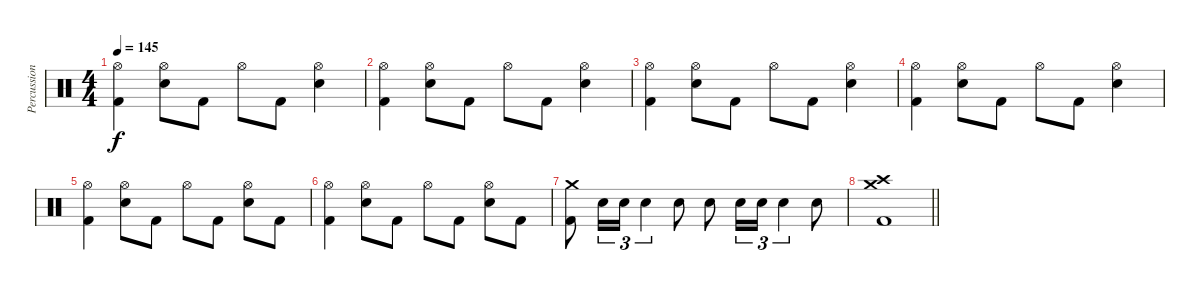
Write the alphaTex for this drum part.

\track ("Percussion" "Percussion") {instrument percussion}
\staff {score}
\articulation defaults
\ts (4 4)
\tempo 145
\clef neutral
\ks c
("Kick (hit) 2" "Hi-Hat (open)").4{dy f} ("Electric Snare (hit)" "Hi-Hat (open)").8 "Kick (hit) 2".8 "Hi-Hat (open)".8 "Kick (hit) 2".8 ("Electric Snare (hit)" "Hi-Hat (open)").4 |
("Kick (hit) 2" "Hi-Hat (open)").4 ("Electric Snare (hit)" "Hi-Hat (open)").8 "Kick (hit) 2".8 "Hi-Hat (open)".8 "Kick (hit) 2".8 ("Electric Snare (hit)" "Hi-Hat (open)").4 |
("Kick (hit) 2" "Hi-Hat (open)").4 ("Electric Snare (hit)" "Hi-Hat (open)").8 "Kick (hit) 2".8 "Hi-Hat (open)".8 "Kick (hit) 2".8 ("Electric Snare (hit)" "Hi-Hat (open)").4 |
("Kick (hit) 2" "Hi-Hat (open)").4 ("Electric Snare (hit)" "Hi-Hat (open)").8 "Kick (hit) 2".8 "Hi-Hat (open)".8 "Kick (hit) 2".8 ("Electric Snare (hit)" "Hi-Hat (open)").4 |
("Kick (hit) 2" "Hi-Hat (open)").4 ("Electric Snare (hit)" "Hi-Hat (open)").8 "Kick (hit) 2".8 "Hi-Hat (open)".8 "Kick (hit) 2".8 ("Electric Snare (hit)" "Hi-Hat (open)").8 "Kick (hit) 2".8 |
("Kick (hit) 2" "Hi-Hat (open)").4 ("Electric Snare (hit)" "Hi-Hat (open)").8 "Kick (hit) 2".8 "Hi-Hat (open)".8 "Kick (hit) 2".8 ("Electric Snare (hit)" "Hi-Hat (open)").8 "Kick (hit) 2".8 |
("Kick (hit) 2" "Crash medium (hit)").8 "Electric Snare (hit)".16{tu (3 2)} "Electric Snare (hit)".16{tu (3 2)} "Electric Snare (hit)".4{tu (3 2)} "Electric Snare (hit)".8 "Electric Snare (hit)".8 "Electric Snare (hit)".16{tu (3 2)} "Electric Snare (hit)".16{tu (3 2)} "Electric Snare (hit)".4{tu (3 2)} "Electric Snare (hit)".8 |
\barLineRight lightlight
("Kick (hit) 2" "Crash high (hit)" "Crash medium (hit)").1
